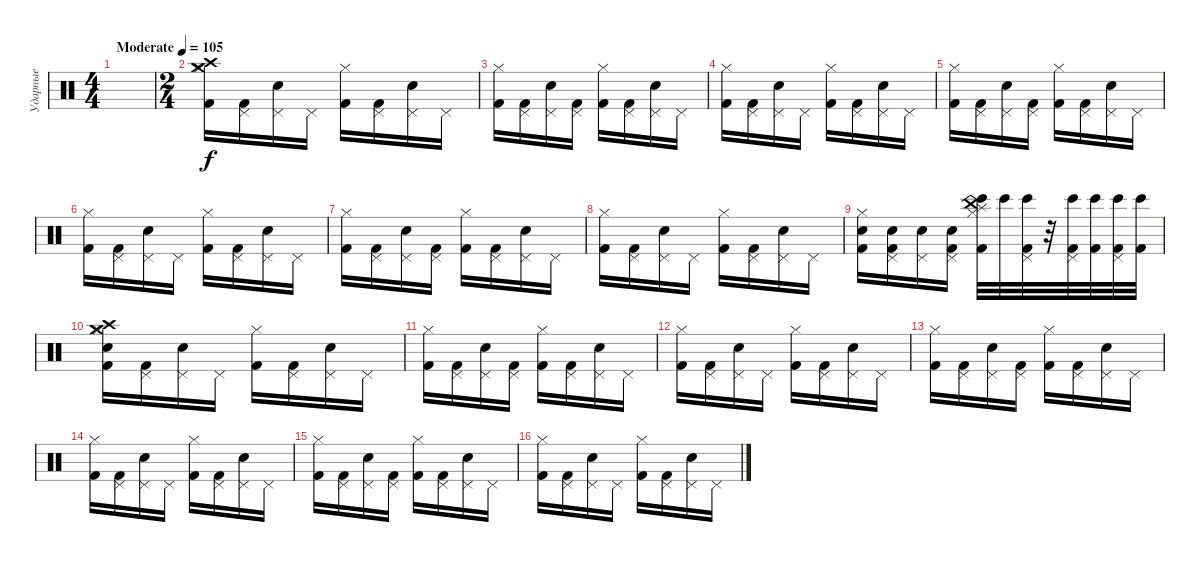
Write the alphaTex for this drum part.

\track ("Ударные" "Ударные") {instrument percussion}
\staff {score}
\articulation defaults
\ts (4 4)
\tempo (105 "Moderate")
\clef neutral
\ks c
|
\ts (2 4)
("Hi-Hat (closed)" "Crash medium (hit)" "Crash high (hit)" "Kick (hit) 2").16 ("Pedal Hi-Hat (hit)" "Kick (hit) 2").16 ("Pedal Hi-Hat (hit)" "Snare (hit) 2").16 "Pedal Hi-Hat (hit)".16 ("Hi-Hat (closed)" "Kick (hit) 2").16 ("Pedal Hi-Hat (hit)" "Kick (hit) 2").16 ("Pedal Hi-Hat (hit)" "Snare (hit) 2").16 "Pedal Hi-Hat (hit)".16 |
("Hi-Hat (closed)" "Kick (hit) 2").16 ("Pedal Hi-Hat (hit)" "Kick (hit) 2").16 ("Pedal Hi-Hat (hit)" "Snare (hit) 2").16 ("Pedal Hi-Hat (hit)" "Kick (hit) 2").16 ("Hi-Hat (closed)" "Kick (hit) 2").16 ("Pedal Hi-Hat (hit)" "Kick (hit) 2").16 ("Pedal Hi-Hat (hit)" "Snare (hit) 2").16 "Pedal Hi-Hat (hit)".16 |
("Hi-Hat (closed)" "Kick (hit) 2").16 ("Pedal Hi-Hat (hit)" "Kick (hit) 2").16 ("Pedal Hi-Hat (hit)" "Snare (hit) 2").16 "Pedal Hi-Hat (hit)".16 ("Hi-Hat (closed)" "Kick (hit) 2").16 ("Pedal Hi-Hat (hit)" "Kick (hit) 2").16 ("Pedal Hi-Hat (hit)" "Snare (hit) 2").16 "Pedal Hi-Hat (hit)".16 |
("Hi-Hat (closed)" "Kick (hit) 2").16 ("Pedal Hi-Hat (hit)" "Kick (hit) 2").16 ("Pedal Hi-Hat (hit)" "Snare (hit) 2").16 ("Pedal Hi-Hat (hit)" "Kick (hit) 2").16 ("Hi-Hat (closed)" "Kick (hit) 2").16 ("Pedal Hi-Hat (hit)" "Kick (hit) 2").16 ("Pedal Hi-Hat (hit)" "Snare (hit) 2").16 "Pedal Hi-Hat (hit)".16 |
("Hi-Hat (closed)" "Kick (hit) 2").16 ("Pedal Hi-Hat (hit)" "Kick (hit) 2").16 ("Pedal Hi-Hat (hit)" "Snare (hit) 2").16 "Pedal Hi-Hat (hit)".16 ("Hi-Hat (closed)" "Kick (hit) 2").16 ("Pedal Hi-Hat (hit)" "Kick (hit) 2").16 ("Pedal Hi-Hat (hit)" "Snare (hit) 2").16 "Pedal Hi-Hat (hit)".16 |
("Hi-Hat (closed)" "Kick (hit) 2").16 ("Pedal Hi-Hat (hit)" "Kick (hit) 2").16 ("Pedal Hi-Hat (hit)" "Snare (hit) 2").16 ("Pedal Hi-Hat (hit)" "Kick (hit) 2").16 ("Hi-Hat (closed)" "Kick (hit) 2").16 ("Pedal Hi-Hat (hit)" "Kick (hit) 2").16 ("Pedal Hi-Hat (hit)" "Snare (hit) 2").16 "Pedal Hi-Hat (hit)".16 |
("Hi-Hat (closed)" "Kick (hit) 2").16 ("Pedal Hi-Hat (hit)" "Kick (hit) 2").16 ("Pedal Hi-Hat (hit)" "Snare (hit) 2").16 "Pedal Hi-Hat (hit)".16 ("Hi-Hat (closed)" "Kick (hit) 2").16 ("Pedal Hi-Hat (hit)" "Kick (hit) 2").16 ("Pedal Hi-Hat (hit)" "Snare (hit) 2").16 "Pedal Hi-Hat (hit)".16 |
("Hi-Hat (closed)" "Snare (hit) 2" "Kick (hit) 2").16 ("Pedal Hi-Hat (hit)" "Snare (hit) 2" "Kick (hit) 2").16 ("Pedal Hi-Hat (hit)" "Snare (hit) 2").16 ("Pedal Hi-Hat (hit)" "Snare (hit) 2" "Kick (hit) 2").16 ("Hi-Hat (closed)" "Bongo High (hit)" "Splash (hit)" "China (hit)" "Kick (hit) 2").32 "Bongo High (hit)".32 ("Pedal Hi-Hat (hit)" "Bongo High (hit)" "Kick (hit) 2").32 r.32 ("Pedal Hi-Hat (hit)" "Bongo High (hit)" "Kick (hit) 2").32 ("Bongo High (hit)" "Kick (hit) 2").32 ("Pedal Hi-Hat (hit)" "Bongo High (hit)" "Kick (hit) 2").32 ("Bongo High (hit)" "Kick (hit) 2").32 |
("Hi-Hat (closed)" "Crash medium (hit)" "Crash high (hit)" "Electric Snare (hit)" "Kick (hit) 2").16 ("Pedal Hi-Hat (hit)" "Kick (hit) 2").16 ("Pedal Hi-Hat (hit)" "Snare (hit) 2").16 "Pedal Hi-Hat (hit)".16 ("Hi-Hat (closed)" "Kick (hit) 2").16 ("Pedal Hi-Hat (hit)" "Kick (hit) 2").16 ("Pedal Hi-Hat (hit)" "Snare (hit) 2").16 "Pedal Hi-Hat (hit)".16 |
("Hi-Hat (closed)" "Kick (hit) 2").16 ("Pedal Hi-Hat (hit)" "Kick (hit) 2").16 ("Pedal Hi-Hat (hit)" "Snare (hit) 2").16 ("Pedal Hi-Hat (hit)" "Kick (hit) 2").16 ("Hi-Hat (closed)" "Kick (hit) 2").16 ("Pedal Hi-Hat (hit)" "Kick (hit) 2").16 ("Pedal Hi-Hat (hit)" "Snare (hit) 2").16 "Pedal Hi-Hat (hit)".16 |
("Hi-Hat (closed)" "Kick (hit) 2").16 ("Pedal Hi-Hat (hit)" "Kick (hit) 2").16 ("Pedal Hi-Hat (hit)" "Snare (hit) 2").16 "Pedal Hi-Hat (hit)".16 ("Hi-Hat (closed)" "Kick (hit) 2").16 ("Pedal Hi-Hat (hit)" "Kick (hit) 2").16 ("Pedal Hi-Hat (hit)" "Snare (hit) 2").16 "Pedal Hi-Hat (hit)".16 |
("Hi-Hat (closed)" "Kick (hit) 2").16 ("Pedal Hi-Hat (hit)" "Kick (hit) 2").16 ("Pedal Hi-Hat (hit)" "Snare (hit) 2").16 ("Pedal Hi-Hat (hit)" "Kick (hit) 2").16 ("Hi-Hat (closed)" "Kick (hit) 2").16 ("Pedal Hi-Hat (hit)" "Kick (hit) 2").16 ("Pedal Hi-Hat (hit)" "Snare (hit) 2").16 "Pedal Hi-Hat (hit)".16 |
("Hi-Hat (closed)" "Kick (hit) 2").16 ("Pedal Hi-Hat (hit)" "Kick (hit) 2").16 ("Pedal Hi-Hat (hit)" "Snare (hit) 2").16 "Pedal Hi-Hat (hit)".16 ("Hi-Hat (closed)" "Kick (hit) 2").16 ("Pedal Hi-Hat (hit)" "Kick (hit) 2").16 ("Pedal Hi-Hat (hit)" "Snare (hit) 2").16 "Pedal Hi-Hat (hit)".16 |
("Hi-Hat (closed)" "Kick (hit) 2").16 ("Pedal Hi-Hat (hit)" "Kick (hit) 2").16 ("Pedal Hi-Hat (hit)" "Snare (hit) 2").16 ("Pedal Hi-Hat (hit)" "Kick (hit) 2").16 ("Hi-Hat (closed)" "Kick (hit) 2").16 ("Pedal Hi-Hat (hit)" "Kick (hit) 2").16 ("Pedal Hi-Hat (hit)" "Snare (hit) 2").16 "Pedal Hi-Hat (hit)".16 |
("Hi-Hat (closed)" "Kick (hit) 2").16 ("Pedal Hi-Hat (hit)" "Kick (hit) 2").16 ("Pedal Hi-Hat (hit)" "Snare (hit) 2").16 "Pedal Hi-Hat (hit)".16 ("Hi-Hat (closed)" "Kick (hit) 2").16 ("Pedal Hi-Hat (hit)" "Kick (hit) 2").16 ("Pedal Hi-Hat (hit)" "Snare (hit) 2").16 "Pedal Hi-Hat (hit)".16
